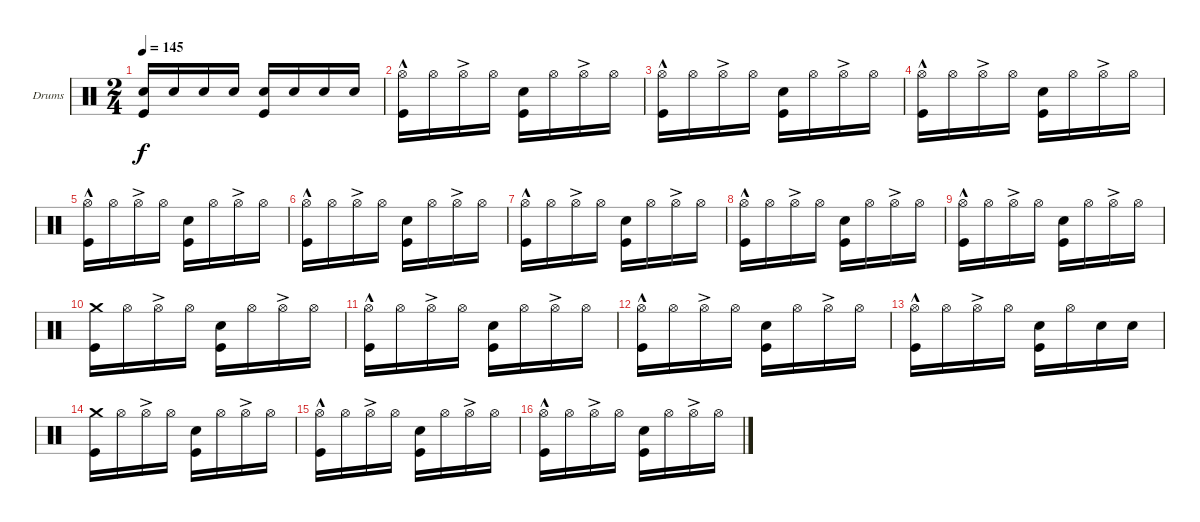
\bracketExtendMode groupsimilarinstruments
\firstSystemTrackNameOrientation horizontal
\otherSystemsTrackNameOrientation horizontal
\track ("Drumkit" "Drums") {instrument percussion}
\staff {score}
\articulation defaults
\ts (2 4)
\tempo 145
\clef neutral
\ks c
("Snare (hit) 2" "Kick (hit)").16{dy f} "Snare (hit) 2".16 "Snare (hit) 2".16 "Snare (hit) 2".16 ("Snare (hit) 2" "Kick (hit)").16 "Snare (hit) 2".16 "Snare (hit) 2".16 "Snare (hit) 2".16 |
("Hi-Hat (open)"{hac} "Kick (hit)").16 "Hi-Hat (open)".16 "Hi-Hat (open)"{ac}.16 "Hi-Hat (open)".16 ("Snare (hit) 2" "Kick (hit)").16 "Hi-Hat (open)".16 "Hi-Hat (open)"{ac}.16 "Hi-Hat (open)".16 |
("Hi-Hat (open)"{hac} "Kick (hit)").16 "Hi-Hat (open)".16 "Hi-Hat (open)"{ac}.16 "Hi-Hat (open)".16 ("Snare (hit) 2" "Kick (hit)").16 "Hi-Hat (open)".16 "Hi-Hat (open)"{ac}.16 "Hi-Hat (open)".16 |
("Hi-Hat (open)"{hac} "Kick (hit)").16 "Hi-Hat (open)".16 "Hi-Hat (open)"{ac}.16 "Hi-Hat (open)".16 ("Snare (hit) 2" "Kick (hit)").16 "Hi-Hat (open)".16 "Hi-Hat (open)"{ac}.16 "Hi-Hat (open)".16 |
("Hi-Hat (open)"{hac} "Kick (hit)").16 "Hi-Hat (open)".16 "Hi-Hat (open)"{ac}.16 "Hi-Hat (open)".16 ("Snare (hit) 2" "Kick (hit)").16 "Hi-Hat (open)".16 "Hi-Hat (open)"{ac}.16 "Hi-Hat (open)".16 |
("Hi-Hat (open)"{hac} "Kick (hit)").16 "Hi-Hat (open)".16 "Hi-Hat (open)"{ac}.16 "Hi-Hat (open)".16 ("Snare (hit) 2" "Kick (hit)").16 "Hi-Hat (open)".16 "Hi-Hat (open)"{ac}.16 "Hi-Hat (open)".16 |
("Hi-Hat (open)"{hac} "Kick (hit)").16 "Hi-Hat (open)".16 "Hi-Hat (open)"{ac}.16 "Hi-Hat (open)".16 ("Snare (hit) 2" "Kick (hit)").16 "Hi-Hat (open)".16 "Hi-Hat (open)"{ac}.16 "Hi-Hat (open)".16 |
("Hi-Hat (open)"{hac} "Kick (hit)").16 "Hi-Hat (open)".16 "Hi-Hat (open)"{ac}.16 "Hi-Hat (open)".16 ("Snare (hit) 2" "Kick (hit)").16 "Hi-Hat (open)".16 "Hi-Hat (open)"{ac}.16 "Hi-Hat (open)".16 |
("Hi-Hat (open)"{hac} "Kick (hit)").16 "Hi-Hat (open)".16 "Hi-Hat (open)"{ac}.16 "Hi-Hat (open)".16 ("Snare (hit) 2" "Kick (hit)").16 "Hi-Hat (open)".16 "Hi-Hat (open)"{ac}.16 "Hi-Hat (open)".16 |
("Kick (hit)" "Crash medium (hit)").16 "Hi-Hat (open)".16 "Hi-Hat (open)"{ac}.16 "Hi-Hat (open)".16 ("Snare (hit) 2" "Kick (hit)").16 "Hi-Hat (open)".16 "Hi-Hat (open)"{ac}.16 "Hi-Hat (open)".16 |
("Hi-Hat (open)"{hac} "Kick (hit)").16 "Hi-Hat (open)".16 "Hi-Hat (open)"{ac}.16 "Hi-Hat (open)".16 ("Snare (hit) 2" "Kick (hit)").16 "Hi-Hat (open)".16 "Hi-Hat (open)"{ac}.16 "Hi-Hat (open)".16 |
("Hi-Hat (open)"{hac} "Kick (hit)").16 "Hi-Hat (open)".16 "Hi-Hat (open)"{ac}.16 "Hi-Hat (open)".16 ("Snare (hit) 2" "Kick (hit)").16 "Hi-Hat (open)".16 "Hi-Hat (open)"{ac}.16 "Hi-Hat (open)".16 |
("Hi-Hat (open)"{hac} "Kick (hit)").16 "Hi-Hat (open)".16 "Hi-Hat (open)"{ac}.16 "Hi-Hat (open)".16 ("Snare (hit) 2" "Kick (hit)").16 "Hi-Hat (open)".16 "Snare (hit) 2".16 "Snare (hit) 2".16 |
("Kick (hit)" "Crash medium (hit)").16 "Hi-Hat (open)".16 "Hi-Hat (open)"{ac}.16 "Hi-Hat (open)".16 ("Snare (hit) 2" "Kick (hit)").16 "Hi-Hat (open)".16 "Hi-Hat (open)"{ac}.16 "Hi-Hat (open)".16 |
("Hi-Hat (open)"{hac} "Kick (hit)").16 "Hi-Hat (open)".16 "Hi-Hat (open)"{ac}.16 "Hi-Hat (open)".16 ("Snare (hit) 2" "Kick (hit)").16 "Hi-Hat (open)".16 "Hi-Hat (open)"{ac}.16 "Hi-Hat (open)".16 |
("Hi-Hat (open)"{hac} "Kick (hit)").16 "Hi-Hat (open)".16 "Hi-Hat (open)"{ac}.16 "Hi-Hat (open)".16 ("Snare (hit) 2" "Kick (hit)").16 "Hi-Hat (open)".16 "Hi-Hat (open)"{ac}.16 "Hi-Hat (open)".16
